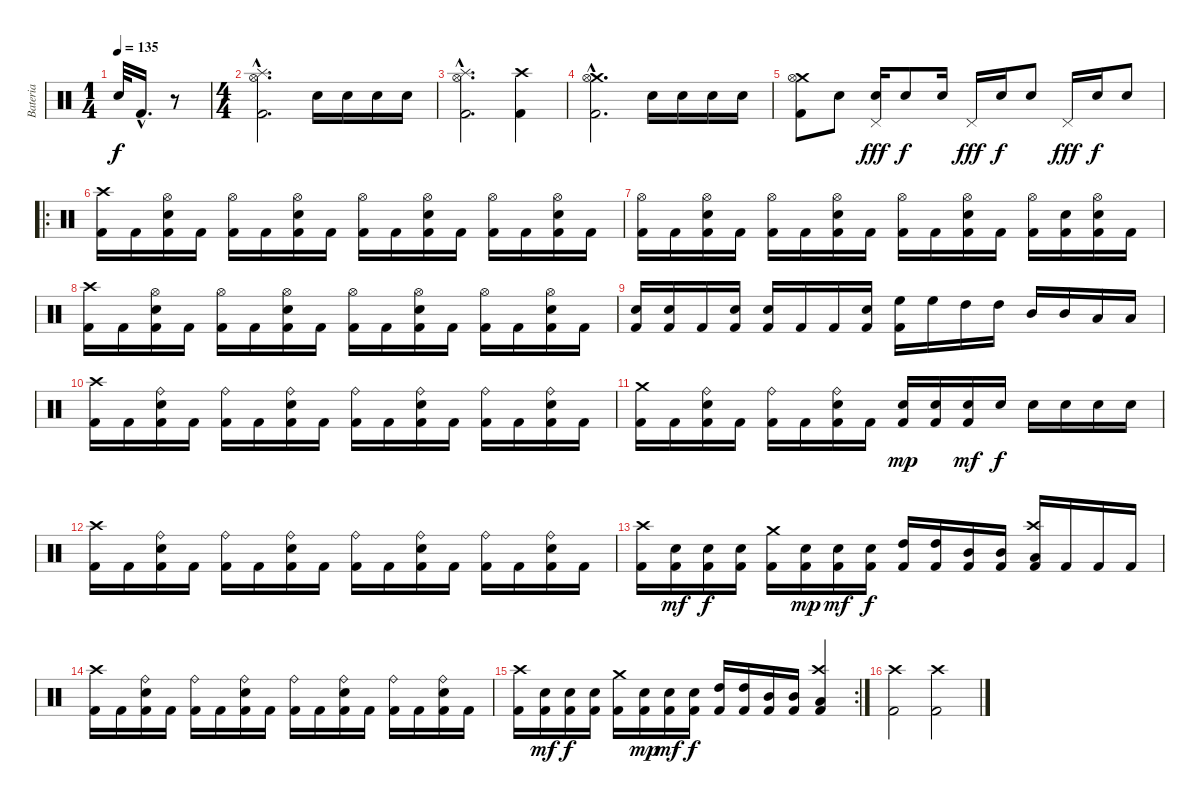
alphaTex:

\track ("Bateria" "Bateria") {instrument percussion}
\staff {score}
\articulation defaults
\ts (1 4)
\tempo 135
\clef neutral
\ks c "Electric Snare (hit)".32{dy f} "Kick (hit) 2"{hac}.16{d}
r.8 |
\ts (4 4)
("Splash (hit)"{hac} "Hi-Hat (open)"{hac} "Kick (hit) 2"{hac}).2{d} "Electric Snare (hit)".16 "Electric Snare (hit)".16 "Electric Snare (hit)".16 "Electric Snare (hit)".16 |
("Splash (hit)"{hac} "Hi-Hat (open)"{hac} "Kick (hit) 2"{hac}).2{d} ("Crash high (hit)" "Kick (hit) 2").4 |
("Crash medium (hit)"{hac} "Hi-Hat (open)"{hac} "Kick (hit) 2"{hac}).2{d} "Electric Snare (hit)".16 "Electric Snare (hit)".16 "Electric Snare (hit)".16 "Electric Snare (hit)".16 |
("Crash medium (hit)" "Hi-Hat (open)" "Kick (hit) 2").8 "Electric Snare (hit)".8 ("Pedal Hi-Hat (hit)" "Electric Snare (hit)").16{dy fff} "Electric Snare (hit)".8{dy f} "Electric Snare (hit)".16 "Pedal Hi-Hat (hit)".16{dy fff} "Electric Snare (hit)".16{dy f} "Electric Snare (hit)".8 "Pedal Hi-Hat (hit)".16{dy fff} "Electric Snare (hit)".16{dy f} "Electric Snare (hit)".8 |
\ro
("Crash high (hit)" "Kick (hit) 2").16 "Kick (hit) 2".16 ("Hi-Hat (open)" "Electric Snare (hit)" "Kick (hit) 2").16 "Kick (hit) 2".16 ("Hi-Hat (open)" "Kick (hit) 2").16 "Kick (hit) 2".16 ("Hi-Hat (open)" "Electric Snare (hit)" "Kick (hit) 2").16 "Kick (hit) 2".16 ("Hi-Hat (open)" "Kick (hit) 2").16 "Kick (hit) 2".16 ("Hi-Hat (open)" "Electric Snare (hit)" "Kick (hit) 2").16 "Kick (hit) 2".16 ("Hi-Hat (open)" "Kick (hit) 2").16 "Kick (hit) 2".16 ("Hi-Hat (open)" "Electric Snare (hit)" "Kick (hit) 2").16 "Kick (hit) 2".16 |
("Hi-Hat (open)" "Kick (hit) 2").16 "Kick (hit) 2".16 ("Hi-Hat (open)" "Electric Snare (hit)" "Kick (hit) 2").16 "Kick (hit) 2".16 ("Hi-Hat (open)" "Kick (hit) 2").16 "Kick (hit) 2".16 ("Hi-Hat (open)" "Electric Snare (hit)" "Kick (hit) 2").16 "Kick (hit) 2".16 ("Hi-Hat (open)" "Kick (hit) 2").16 "Kick (hit) 2".16 ("Hi-Hat (open)" "Electric Snare (hit)" "Kick (hit) 2").16 "Kick (hit) 2".16 ("Hi-Hat (open)" "Kick (hit) 2").16 ("Electric Snare (hit)" "Kick (hit) 2").16 ("Hi-Hat (open)" "Electric Snare (hit)" "Kick (hit) 2").16 "Kick (hit) 2".16 |
("Crash high (hit)" "Kick (hit) 2").16 "Kick (hit) 2".16 ("Hi-Hat (open)" "Electric Snare (hit)" "Kick (hit) 2").16 "Kick (hit) 2".16 ("Hi-Hat (open)" "Kick (hit) 2").16 "Kick (hit) 2".16 ("Hi-Hat (open)" "Electric Snare (hit)" "Kick (hit) 2").16 "Kick (hit) 2".16 ("Hi-Hat (open)" "Kick (hit) 2").16 "Kick (hit) 2".16 ("Hi-Hat (open)" "Electric Snare (hit)" "Kick (hit) 2").16 "Kick (hit) 2".16 ("Hi-Hat (open)" "Kick (hit) 2").16 "Kick (hit) 2".16 ("Hi-Hat (open)" "Electric Snare (hit)" "Kick (hit) 2").16 "Kick (hit) 2".16 |
("Electric Snare (hit)" "Kick (hit) 2").16 ("Electric Snare (hit)" "Kick (hit) 2").16 "Kick (hit) 2".16 ("Electric Snare (hit)" "Kick (hit) 2").16 ("Electric Snare (hit)" "Kick (hit) 2").16 "Kick (hit) 2".16 "Kick (hit) 2".16 ("Electric Snare (hit)" "Kick (hit) 2").16 ("High Floor Tom (hit)" "Kick (hit) 2").16 "High Floor Tom (hit)".16 "High Tom (hit)".16 "High Tom (hit)".16 "Mid Tom (hit)".16 "Mid Tom (hit)".16 "Low Tom (hit)".16 "Low Tom (hit)".16 |
("Crash high (hit)" "Kick (hit) 2").16 "Kick (hit) 2".16 ("Ride (bell)" "Electric Snare (hit)" "Kick (hit) 2").16 "Kick (hit) 2".16 ("Ride (bell)" "Kick (hit) 2").16 "Kick (hit) 2".16 ("Ride (bell)" "Electric Snare (hit)" "Kick (hit) 2").16 "Kick (hit) 2".16 ("Ride (bell)" "Kick (hit) 2").16 "Kick (hit) 2".16 ("Ride (bell)" "Electric Snare (hit)" "Kick (hit) 2").16 "Kick (hit) 2".16 ("Ride (bell)" "Kick (hit) 2").16 "Kick (hit) 2".16 ("Ride (bell)" "Electric Snare (hit)" "Kick (hit) 2").16 "Kick (hit) 2".16 |
("Crash medium (hit)" "Kick (hit) 2").16 "Kick (hit) 2".16 ("Ride (bell)" "Electric Snare (hit)" "Kick (hit) 2").16 "Kick (hit) 2".16 ("Ride (bell)" "Kick (hit) 2").16 "Kick (hit) 2".16 ("Ride (bell)" "Electric Snare (hit)" "Kick (hit) 2").16 "Kick (hit) 2".16 ("Electric Snare (hit)" "Kick (hit) 2").16{dy mp} ("Electric Snare (hit)" "Kick (hit) 2").16 ("Electric Snare (hit)" "Kick (hit) 2").16{dy mf} "Electric Snare (hit)".16{dy f} "Electric Snare (hit)".16 "Electric Snare (hit)".16 "Electric Snare (hit)".16 "Electric Snare (hit)".16 |
("Crash high (hit)" "Kick (hit) 2").16 "Kick (hit) 2".16 ("Ride (bell)" "Electric Snare (hit)" "Kick (hit) 2").16 "Kick (hit) 2".16 ("Ride (bell)" "Kick (hit) 2").16 "Kick (hit) 2".16 ("Ride (bell)" "Electric Snare (hit)" "Kick (hit) 2").16 "Kick (hit) 2".16 ("Ride (bell)" "Kick (hit) 2").16 "Kick (hit) 2".16 ("Ride (bell)" "Electric Snare (hit)" "Kick (hit) 2").16 "Kick (hit) 2".16 ("Ride (bell)" "Kick (hit) 2").16 "Kick (hit) 2".16 ("Ride (bell)" "Electric Snare (hit)" "Kick (hit) 2").16 "Kick (hit) 2".16 |
("Crash high (hit)" "Kick (hit) 2").16 ("Electric Snare (hit)" "Kick (hit) 2").16{dy mf} ("Electric Snare (hit)" "Kick (hit) 2").16{dy f} ("Electric Snare (hit)" "Kick (hit) 2").16 ("Crash medium (hit)" "Kick (hit) 2").16 ("Electric Snare (hit)" "Kick (hit) 2").16{dy mp} ("Electric Snare (hit)" "Kick (hit) 2").16{dy mf} ("Electric Snare (hit)" "Kick (hit) 2").16{dy f} ("High Tom (hit)" "Kick (hit) 2").16 ("High Tom (hit)" "Kick (hit) 2").16 ("Mid Tom (hit)" "Kick (hit) 2").16 ("Mid Tom (hit)" "Kick (hit) 2").16 ("Crash high (hit)" "Low Tom (hit)" "Kick (hit) 2").16 "Kick (hit) 2".16 "Kick (hit) 2".16 "Kick (hit) 2".16 |
("Crash high (hit)" "Kick (hit) 2").16 "Kick (hit) 2".16 ("Ride (bell)" "Electric Snare (hit)" "Kick (hit) 2").16 "Kick (hit) 2".16 ("Ride (bell)" "Kick (hit) 2").16 "Kick (hit) 2".16 ("Ride (bell)" "Electric Snare (hit)" "Kick (hit) 2").16 "Kick (hit) 2".16 ("Ride (bell)" "Kick (hit) 2").16 "Kick (hit) 2".16 ("Ride (bell)" "Electric Snare (hit)" "Kick (hit) 2").16 "Kick (hit) 2".16 ("Ride (bell)" "Kick (hit) 2").16 "Kick (hit) 2".16 ("Ride (bell)" "Electric Snare (hit)" "Kick (hit) 2").16 "Kick (hit) 2".16 |
\rc 2
("Crash high (hit)" "Kick (hit) 2").16 ("Electric Snare (hit)" "Kick (hit) 2").16{dy mf} ("Electric Snare (hit)" "Kick (hit) 2").16{dy f} ("Electric Snare (hit)" "Kick (hit) 2").16 ("Crash medium (hit)" "Kick (hit) 2").16 ("Electric Snare (hit)" "Kick (hit) 2").16{dy mp} ("Electric Snare (hit)" "Kick (hit) 2").16{dy mf} ("Electric Snare (hit)" "Kick (hit) 2").16{dy f} ("High Tom (hit)" "Kick (hit) 2").16 ("High Tom (hit)" "Kick (hit) 2").16 ("Mid Tom (hit)" "Kick (hit) 2").16 ("Mid Tom (hit)" "Kick (hit) 2").16 ("Crash high (hit)" "Low Tom (hit)" "Kick (hit) 2").4 |
("Crash high (hit)" "Kick (hit) 2").2 ("Crash high (hit)" "Kick (hit) 2").2
